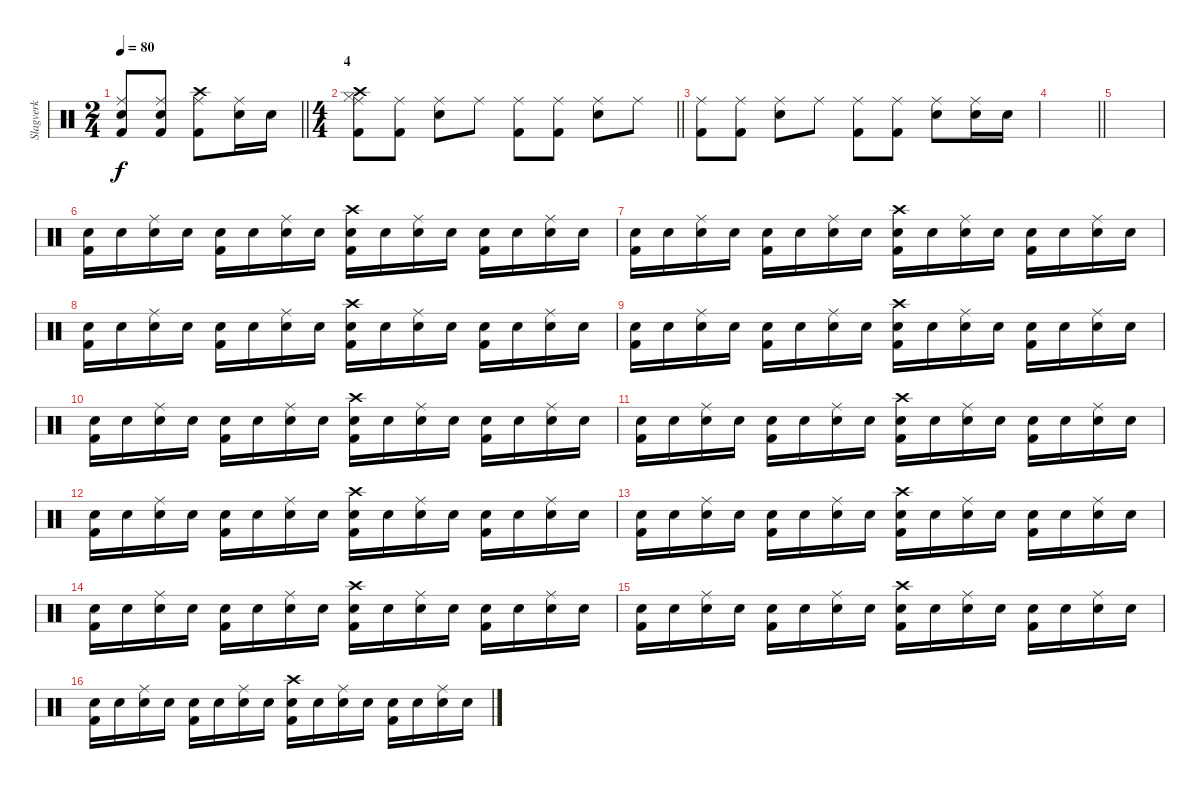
\track ("Slagverk" "Slagverk") {instrument percussion}
\staff {score}
\articulation defaults
\ts (2 4)
\tempo 80
\clef neutral
\barLineRight lightlight
\ks c
("Snare (hit) 2" "Ride (middle)" "Kick (hit) 2").8{dy f} ("Snare (hit) 2" "Ride (middle)" "Kick (hit) 2").8 ("Crash high (hit)" "Kick (hit) 2" "Ride (middle)").8 ("Snare (hit) 2" "Ride (middle)").16 "Snare (hit) 2".16 |
\ts (4 4)
\section ("" "4")
\barLineRight lightlight
("Crash high (hit)" "Hi-Hat (closed)" "Kick (hit) 2" "Ride (middle)").8 ("Ride (middle)" "Kick (hit) 2").8 ("Snare (hit) 2" "Ride (middle)").8 "Ride (middle)".8 ("Ride (middle)" "Kick (hit) 2").8 ("Ride (middle)" "Kick (hit) 2").8 ("Snare (hit) 2" "Ride (middle)").8 "Ride (middle)".8 |
("Ride (middle)" "Kick (hit) 2").8 ("Ride (middle)" "Kick (hit) 2").8 ("Snare (hit) 2" "Ride (middle)").8 "Ride (middle)".8 ("Ride (middle)" "Kick (hit) 2").8 ("Ride (middle)" "Kick (hit) 2").8 ("Snare (hit) 2" "Ride (middle)").8 ("Snare (hit) 2" "Ride (middle)").16 "Snare (hit) 2".16 |
\barLineRight lightlight
|
|
("Snare (hit) 2" "Kick (hit) 2").16 "Snare (hit) 2".16 ("Snare (hit) 2" "Ride (middle)").16 "Snare (hit) 2".16 ("Snare (hit) 2" "Kick (hit) 2").16 "Snare (hit) 2".16 ("Snare (hit) 2" "Ride (middle)").16 "Snare (hit) 2".16 ("Snare (hit) 2" "Crash high (hit)" "Kick (hit) 2").16 "Snare (hit) 2".16 ("Snare (hit) 2" "Ride (middle)").16 "Snare (hit) 2".16 ("Snare (hit) 2" "Kick (hit) 2").16 "Snare (hit) 2".16 ("Snare (hit) 2" "Ride (middle)").16 "Snare (hit) 2".16 |
("Snare (hit) 2" "Kick (hit) 2").16 "Snare (hit) 2".16 ("Snare (hit) 2" "Ride (middle)").16 "Snare (hit) 2".16 ("Snare (hit) 2" "Kick (hit) 2").16 "Snare (hit) 2".16 ("Snare (hit) 2" "Ride (middle)").16 "Snare (hit) 2".16 ("Snare (hit) 2" "Crash high (hit)" "Kick (hit) 2").16 "Snare (hit) 2".16 ("Snare (hit) 2" "Ride (middle)").16 "Snare (hit) 2".16 ("Snare (hit) 2" "Kick (hit) 2").16 "Snare (hit) 2".16 ("Snare (hit) 2" "Ride (middle)").16 "Snare (hit) 2".16 |
("Snare (hit) 2" "Kick (hit) 2").16 "Snare (hit) 2".16 ("Snare (hit) 2" "Ride (middle)").16 "Snare (hit) 2".16 ("Snare (hit) 2" "Kick (hit) 2").16 "Snare (hit) 2".16 ("Snare (hit) 2" "Ride (middle)").16 "Snare (hit) 2".16 ("Snare (hit) 2" "Crash high (hit)" "Kick (hit) 2").16 "Snare (hit) 2".16 ("Snare (hit) 2" "Ride (middle)").16 "Snare (hit) 2".16 ("Snare (hit) 2" "Kick (hit) 2").16 "Snare (hit) 2".16 ("Snare (hit) 2" "Ride (middle)").16 "Snare (hit) 2".16 |
("Snare (hit) 2" "Kick (hit) 2").16 "Snare (hit) 2".16 ("Snare (hit) 2" "Ride (middle)").16 "Snare (hit) 2".16 ("Snare (hit) 2" "Kick (hit) 2").16 "Snare (hit) 2".16 ("Snare (hit) 2" "Ride (middle)").16 "Snare (hit) 2".16 ("Snare (hit) 2" "Crash high (hit)" "Kick (hit) 2").16 "Snare (hit) 2".16 ("Snare (hit) 2" "Ride (middle)").16 "Snare (hit) 2".16 ("Snare (hit) 2" "Kick (hit) 2").16 "Snare (hit) 2".16 ("Snare (hit) 2" "Ride (middle)").16 "Snare (hit) 2".16 |
("Snare (hit) 2" "Kick (hit) 2").16 "Snare (hit) 2".16 ("Snare (hit) 2" "Ride (middle)").16 "Snare (hit) 2".16 ("Snare (hit) 2" "Kick (hit) 2").16 "Snare (hit) 2".16 ("Snare (hit) 2" "Ride (middle)").16 "Snare (hit) 2".16 ("Snare (hit) 2" "Crash high (hit)" "Kick (hit) 2").16 "Snare (hit) 2".16 ("Snare (hit) 2" "Ride (middle)").16 "Snare (hit) 2".16 ("Snare (hit) 2" "Kick (hit) 2").16 "Snare (hit) 2".16 ("Snare (hit) 2" "Ride (middle)").16 "Snare (hit) 2".16 |
("Snare (hit) 2" "Kick (hit) 2").16 "Snare (hit) 2".16 ("Snare (hit) 2" "Ride (middle)").16 "Snare (hit) 2".16 ("Snare (hit) 2" "Kick (hit) 2").16 "Snare (hit) 2".16 ("Snare (hit) 2" "Ride (middle)").16 "Snare (hit) 2".16 ("Snare (hit) 2" "Crash high (hit)" "Kick (hit) 2").16 "Snare (hit) 2".16 ("Snare (hit) 2" "Ride (middle)").16 "Snare (hit) 2".16 ("Snare (hit) 2" "Kick (hit) 2").16 "Snare (hit) 2".16 ("Snare (hit) 2" "Ride (middle)").16 "Snare (hit) 2".16 |
("Snare (hit) 2" "Kick (hit) 2").16 "Snare (hit) 2".16 ("Snare (hit) 2" "Ride (middle)").16 "Snare (hit) 2".16 ("Snare (hit) 2" "Kick (hit) 2").16 "Snare (hit) 2".16 ("Snare (hit) 2" "Ride (middle)").16 "Snare (hit) 2".16 ("Snare (hit) 2" "Crash high (hit)" "Kick (hit) 2").16 "Snare (hit) 2".16 ("Snare (hit) 2" "Ride (middle)").16 "Snare (hit) 2".16 ("Snare (hit) 2" "Kick (hit) 2").16 "Snare (hit) 2".16 ("Snare (hit) 2" "Ride (middle)").16 "Snare (hit) 2".16 |
("Snare (hit) 2" "Kick (hit) 2").16 "Snare (hit) 2".16 ("Snare (hit) 2" "Ride (middle)").16 "Snare (hit) 2".16 ("Snare (hit) 2" "Kick (hit) 2").16 "Snare (hit) 2".16 ("Snare (hit) 2" "Ride (middle)").16 "Snare (hit) 2".16 ("Snare (hit) 2" "Crash high (hit)" "Kick (hit) 2").16 "Snare (hit) 2".16 ("Snare (hit) 2" "Ride (middle)").16 "Snare (hit) 2".16 ("Snare (hit) 2" "Kick (hit) 2").16 "Snare (hit) 2".16 ("Snare (hit) 2" "Ride (middle)").16 "Snare (hit) 2".16 |
("Snare (hit) 2" "Kick (hit) 2").16 "Snare (hit) 2".16 ("Snare (hit) 2" "Ride (middle)").16 "Snare (hit) 2".16 ("Snare (hit) 2" "Kick (hit) 2").16 "Snare (hit) 2".16 ("Snare (hit) 2" "Ride (middle)").16 "Snare (hit) 2".16 ("Snare (hit) 2" "Crash high (hit)" "Kick (hit) 2").16 "Snare (hit) 2".16 ("Snare (hit) 2" "Ride (middle)").16 "Snare (hit) 2".16 ("Snare (hit) 2" "Kick (hit) 2").16 "Snare (hit) 2".16 ("Snare (hit) 2" "Ride (middle)").16 "Snare (hit) 2".16 |
("Snare (hit) 2" "Kick (hit) 2").16 "Snare (hit) 2".16 ("Snare (hit) 2" "Ride (middle)").16 "Snare (hit) 2".16 ("Snare (hit) 2" "Kick (hit) 2").16 "Snare (hit) 2".16 ("Snare (hit) 2" "Ride (middle)").16 "Snare (hit) 2".16 ("Snare (hit) 2" "Crash high (hit)" "Kick (hit) 2").16 "Snare (hit) 2".16 ("Snare (hit) 2" "Ride (middle)").16 "Snare (hit) 2".16 ("Snare (hit) 2" "Kick (hit) 2").16 "Snare (hit) 2".16 ("Snare (hit) 2" "Ride (middle)").16 "Snare (hit) 2".16 |
("Snare (hit) 2" "Kick (hit) 2").16 "Snare (hit) 2".16 ("Snare (hit) 2" "Ride (middle)").16 "Snare (hit) 2".16 ("Snare (hit) 2" "Kick (hit) 2").16 "Snare (hit) 2".16 ("Snare (hit) 2" "Ride (middle)").16 "Snare (hit) 2".16 ("Snare (hit) 2" "Crash high (hit)" "Kick (hit) 2").16 "Snare (hit) 2".16 ("Snare (hit) 2" "Ride (middle)").16 "Snare (hit) 2".16 ("Snare (hit) 2" "Kick (hit) 2").16 "Snare (hit) 2".16 ("Snare (hit) 2" "Ride (middle)").16 "Snare (hit) 2".16
